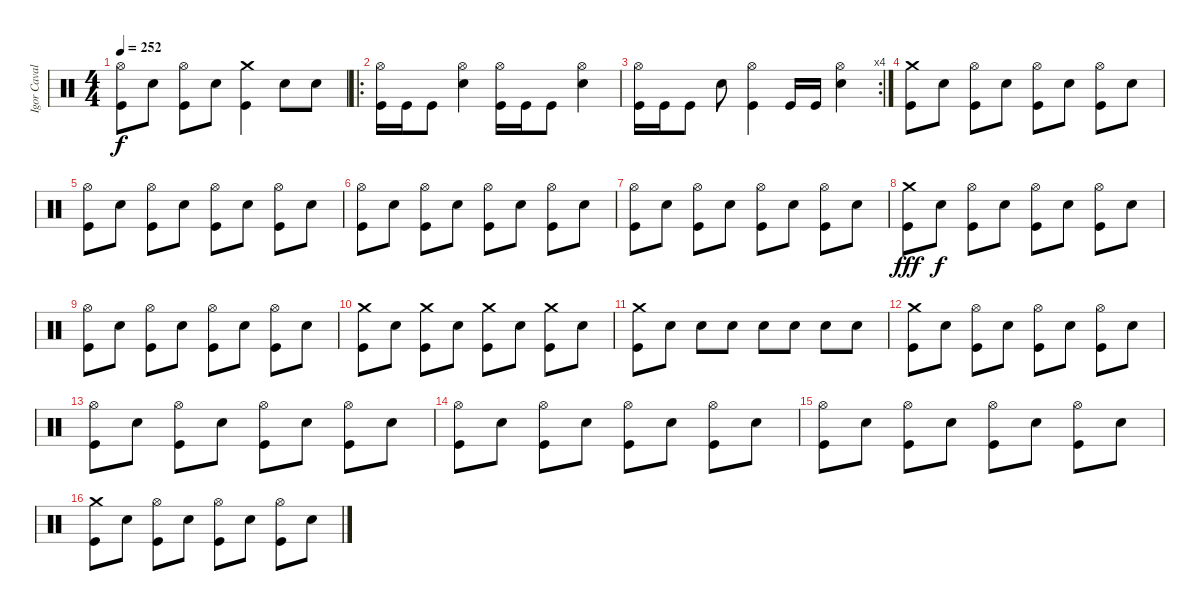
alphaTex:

\track ("Igor Cavalera" "Igor Caval") {instrument percussion}
\staff {score}
\articulation defaults
\ts (4 4)
\tempo 252
\clef neutral
\ks c
("Hi-Hat (open)" "Kick (hit)").8{dy f} "Electric Snare (hit)".8 ("Hi-Hat (open)" "Kick (hit)").8 "Electric Snare (hit)".8 ("Crash medium (hit)" "Kick (hit)").4 "Electric Snare (hit)".8 "Electric Snare (hit)".8 |
\ro
("Hi-Hat (open)" "Kick (hit)").16 "Kick (hit)".16 "Kick (hit)".8 ("Hi-Hat (open)" "Electric Snare (hit)").4 ("Hi-Hat (open)" "Kick (hit)").16 "Kick (hit)".16 "Kick (hit)".8 ("Hi-Hat (open)" "Electric Snare (hit)").4 |
\rc 4
("Hi-Hat (open)" "Kick (hit)").16 "Kick (hit)".16 "Kick (hit)".8 "Electric Snare (hit)".8 ("Hi-Hat (open)" "Kick (hit)").4 "Kick (hit)".16 "Kick (hit)".16 ("Hi-Hat (open)" "Electric Snare (hit)").4 |
("Crash medium (hit)" "Kick (hit)").8 "Electric Snare (hit)".8 ("Hi-Hat (open)" "Kick (hit)").8 "Electric Snare (hit)".8 ("Hi-Hat (open)" "Kick (hit)").8 "Electric Snare (hit)".8 ("Hi-Hat (open)" "Kick (hit)").8 "Electric Snare (hit)".8 |
("Hi-Hat (open)" "Kick (hit)").8 "Electric Snare (hit)".8 ("Hi-Hat (open)" "Kick (hit)").8 "Electric Snare (hit)".8 ("Hi-Hat (open)" "Kick (hit)").8 "Electric Snare (hit)".8 ("Hi-Hat (open)" "Kick (hit)").8 "Electric Snare (hit)".8 |
("Hi-Hat (open)" "Kick (hit)").8 "Electric Snare (hit)".8 ("Hi-Hat (open)" "Kick (hit)").8 "Electric Snare (hit)".8 ("Hi-Hat (open)" "Kick (hit)").8 "Electric Snare (hit)".8 ("Hi-Hat (open)" "Kick (hit)").8 "Electric Snare (hit)".8 |
("Hi-Hat (open)" "Kick (hit)").8 "Electric Snare (hit)".8 ("Hi-Hat (open)" "Kick (hit)").8 "Electric Snare (hit)".8 ("Hi-Hat (open)" "Kick (hit)").8 "Electric Snare (hit)".8 ("Hi-Hat (open)" "Kick (hit)").8 "Electric Snare (hit)".8 |
("Crash medium (hit)" "Kick (hit)").8{dy fff} "Electric Snare (hit)".8{dy f} ("Hi-Hat (open)" "Kick (hit)").8 "Electric Snare (hit)".8 ("Hi-Hat (open)" "Kick (hit)").8 "Electric Snare (hit)".8 ("Hi-Hat (open)" "Kick (hit)").8 "Electric Snare (hit)".8 |
("Hi-Hat (open)" "Kick (hit)").8 "Electric Snare (hit)".8 ("Hi-Hat (open)" "Kick (hit)").8 "Electric Snare (hit)".8 ("Hi-Hat (open)" "Kick (hit)").8 "Electric Snare (hit)".8 ("Hi-Hat (open)" "Kick (hit)").8 "Electric Snare (hit)".8 |
("Crash medium (hit)" "Kick (hit)").8 "Electric Snare (hit)".8 ("Crash medium (hit)" "Kick (hit)").8 "Electric Snare (hit)".8 ("Crash medium (hit)" "Kick (hit)").8 "Electric Snare (hit)".8 ("Crash medium (hit)" "Kick (hit)").8 "Electric Snare (hit)".8 |
("Crash medium (hit)" "Kick (hit)").8 "Electric Snare (hit)".8 "Electric Snare (hit)".8 "Electric Snare (hit)".8 "Electric Snare (hit)".8 "Electric Snare (hit)".8 "Electric Snare (hit)".8 "Electric Snare (hit)".8 |
("Crash medium (hit)" "Kick (hit)").8 "Electric Snare (hit)".8 ("Hi-Hat (open)" "Kick (hit)").8 "Electric Snare (hit)".8 ("Hi-Hat (open)" "Kick (hit)").8 "Electric Snare (hit)".8 ("Hi-Hat (open)" "Kick (hit)").8 "Electric Snare (hit)".8 |
("Hi-Hat (open)" "Kick (hit)").8 "Electric Snare (hit)".8 ("Hi-Hat (open)" "Kick (hit)").8 "Electric Snare (hit)".8 ("Hi-Hat (open)" "Kick (hit)").8 "Electric Snare (hit)".8 ("Hi-Hat (open)" "Kick (hit)").8 "Electric Snare (hit)".8 |
("Hi-Hat (open)" "Kick (hit)").8 "Electric Snare (hit)".8 ("Hi-Hat (open)" "Kick (hit)").8 "Electric Snare (hit)".8 ("Hi-Hat (open)" "Kick (hit)").8 "Electric Snare (hit)".8 ("Hi-Hat (open)" "Kick (hit)").8 "Electric Snare (hit)".8 |
("Hi-Hat (open)" "Kick (hit)").8 "Electric Snare (hit)".8 ("Hi-Hat (open)" "Kick (hit)").8 "Electric Snare (hit)".8 ("Hi-Hat (open)" "Kick (hit)").8 "Electric Snare (hit)".8 ("Hi-Hat (open)" "Kick (hit)").8 "Electric Snare (hit)".8 |
("Crash medium (hit)" "Kick (hit)").8 "Electric Snare (hit)".8 ("Hi-Hat (open)" "Kick (hit)").8 "Electric Snare (hit)".8 ("Hi-Hat (open)" "Kick (hit)").8 "Electric Snare (hit)".8 ("Hi-Hat (open)" "Kick (hit)").8 "Electric Snare (hit)".8
